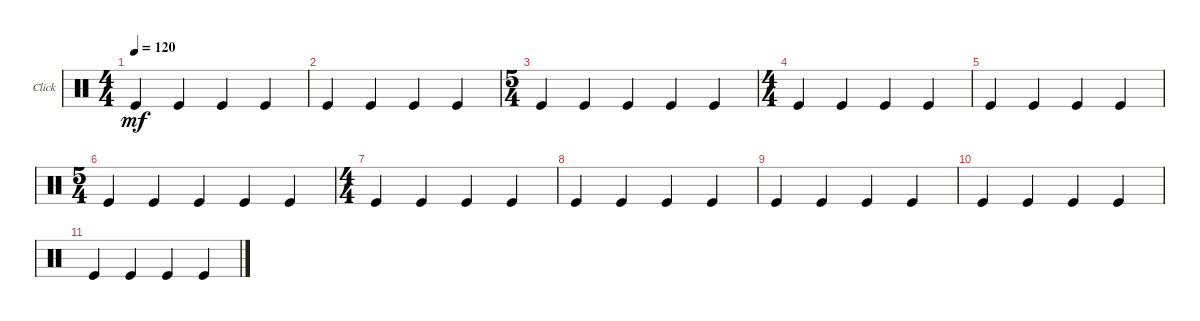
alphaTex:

\bracketExtendMode groupsimilarinstruments
\firstSystemTrackNameOrientation horizontal
\otherSystemsTrackNameOrientation horizontal
\track ("Click" "Click") {instrument percussion}
\staff {score}
\articulation defaults
\ts (4 4)
\tempo 120
\clef neutral
\ks c "Kick (hit)".4{dy mf} "Kick (hit)".4 "Kick (hit)".4 "Kick (hit)".4
|
"Kick (hit)".4 "Kick (hit)".4 "Kick (hit)".4 "Kick (hit)".4 |
\ts (5 4)
"Kick (hit)".4 "Kick (hit)".4 "Kick (hit)".4 "Kick (hit)".4 "Kick (hit)".4 |
\ts (4 4)
"Kick (hit)".4 "Kick (hit)".4 "Kick (hit)".4 "Kick (hit)".4 |
"Kick (hit)".4 "Kick (hit)".4 "Kick (hit)".4 "Kick (hit)".4 |
\ts (5 4)
"Kick (hit)".4 "Kick (hit)".4 "Kick (hit)".4 "Kick (hit)".4 "Kick (hit)".4 |
\ts (4 4)
"Kick (hit)".4 "Kick (hit)".4 "Kick (hit)".4 "Kick (hit)".4 |
"Kick (hit)".4 "Kick (hit)".4 "Kick (hit)".4 "Kick (hit)".4 |
"Kick (hit)".4 "Kick (hit)".4 "Kick (hit)".4 "Kick (hit)".4 |
"Kick (hit)".4 "Kick (hit)".4 "Kick (hit)".4 "Kick (hit)".4 |
"Kick (hit)".4 "Kick (hit)".4 "Kick (hit)".4 "Kick (hit)".4
